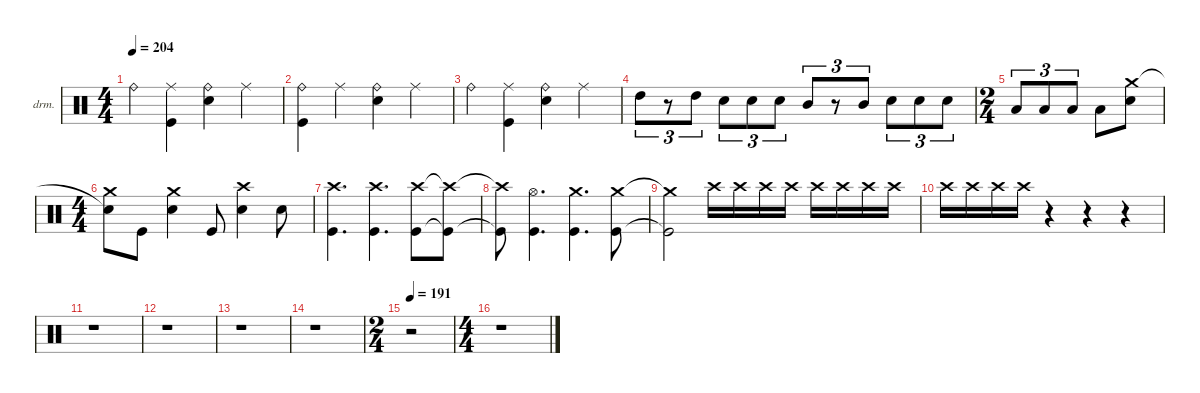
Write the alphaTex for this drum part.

\defaultSystemsLayout 4
\hideDynamics
\bracketExtendMode nobrackets
\firstSystemTrackNameOrientation horizontal
\otherSystemsTrackNameOrientation horizontal
\track ("Drumkit" "drm.") {instrument percussion}
\staff {score}
\articulation defaults
\ts (4 4)
\tempo 204
\clef neutral
\ks c "Ride (bell)".4{dy f beam Down}
("Ride (middle)" "Kick (hit)").4{dy mp beam Down} ("Ride (bell)" "Snare (hit) 2").4{dy f beam Down} "Ride (middle)".4{dy mp beam Down} |
("Ride (bell)" "Kick (hit)").4{dy f beam Down} "Ride (middle)".4{dy mp beam Down} ("Ride (bell)" "Snare (hit) 2").4{dy f beam Down} "Ride (middle)".4{dy mp beam Down} |
"Ride (bell)".4{dy f beam Down} ("Ride (middle)" "Kick (hit)").4{dy mp beam Down} ("Ride (bell)" "Snare (hit) 2").4{dy f beam Down} "Ride (middle)".4{dy mp beam Down} |
\beaming (8 3 2 2 1)
"High Tom (hit)".8{tu (3 2) dy ff beam Down} r.8{tu (3 2) beam Down} "High Tom (hit)".8{tu (3 2) beam Down} "Snare (hit) 2".8{tu (3 2) dy mp beam Down} "Snare (hit) 2".8{tu (3 2) dy mf beam Down} "Snare (hit) 2".8{tu (3 2) beam Down} "Mid Tom (hit)".8{tu (3 2) dy ff beam Up} r.8{tu (3 2) beam Up} "Mid Tom (hit)".8{tu (3 2) beam Up} "Snare (hit) 2".8{tu (3 2) dy mf beam Down} "Snare (hit) 2".8{tu (3 2) dy ff beam Down} "Snare (hit) 2".8{tu (3 2) beam Down} |
\ts (2 4)
\beaming (8 4)
"Low Tom (hit)".8{tu (3 2) dy f beam Up} "Low Tom (hit)".8{tu (3 2) beam Up} "Low Tom (hit)".8{tu (3 2) beam Up} "Low Tom (hit)".8{beam Down} ("Crash medium (hit)" "Snare (hit) 2").8{beam Down} |
\ts (4 4)
\beaming (8 2 2 2 2)
("Snare (hit) 2"{t} "Crash medium (hit)").8{beam Down} "Kick (hit)".8{beam Down} ("Snare (hit) 2" "Crash medium (hit)").4{beam Down} "Kick (hit)".8{beam Up} ("Snare (hit) 2" "Crash high (hit)").4{beam Down} "Snare (hit) 2".8{dy mf beam Down} |
("Kick (hit)" "Crash high (hit)").4{d dy f beam Down} ("Kick (hit)" "Crash high (hit)").4{d beam Down} ("Kick (hit)" "Crash high (hit)").8{beam Down} ("Kick (hit)"{t} "Crash high (hit)"{t}).8{beam Down} |
("Kick (hit)"{t} "Crash high (hit)"{t}).8{beam Down} ("Hi-Hat (open)" "Kick (hit)").4{d dy mf beam Down} ("Kick (hit)" "Crash medium (hit)").4{d beam Down} ("Crash medium (hit)" "Kick (hit)").8{dy f beam Down} |
("Crash medium (hit)"{t} "Kick (hit)"{t}).2{beam Down} "Crash high (hit)".16{dy ppp beam Down} "Crash high (hit)".16{beam Down} "Crash high (hit)".16{dy pp beam Down} "Crash high (hit)".16{beam Down} "Crash high (hit)".16{dy p beam Down} "Crash high (hit)".16{beam Down} "Crash high (hit)".16{dy mp beam Down} "Crash high (hit)".16{beam Down} |
"Crash high (hit)".16{dy mf beam Down} "Crash high (hit)".16{beam Down} "Crash high (hit)".16{dy f beam Down} "Crash high (hit)".16{beam Down} r.4{beam Down} r.4{beam Down} r.4{beam Down} |
r.1{beam Down} |
r.1{beam Down} |
r.1{beam Down} |
r.1{beam Down} |
\ts (2 4)
\beaming (8 2 2)
\tempo 191
r.2{beam Down} |
\ts (4 4)
\beaming (8 2 2 2 2)
r.1{beam Down}
